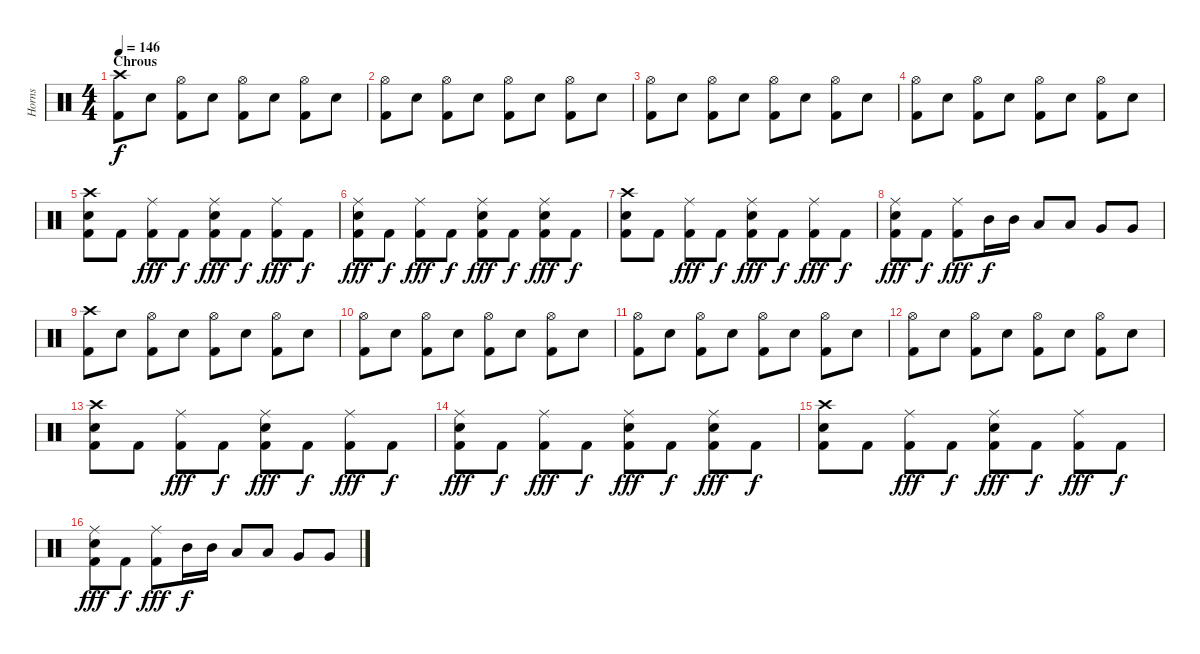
\track ("Horns" "Horns") {instrument percussion}
\staff {score}
\articulation defaults
\ts (4 4)
\section ("" "Chrous")
\tempo 146
\clef neutral
\ks c
("Crash high (hit)" "Kick (hit) 2").8{dy f} "Snare (hit) 2".8 ("Hi-Hat (open)" "Kick (hit) 2").8 "Snare (hit) 2".8 ("Hi-Hat (open)" "Kick (hit) 2").8 "Snare (hit) 2".8 ("Hi-Hat (open)" "Kick (hit) 2").8 "Snare (hit) 2".8 |
("Hi-Hat (open)" "Kick (hit) 2").8 "Snare (hit) 2".8 ("Hi-Hat (open)" "Kick (hit) 2").8 "Snare (hit) 2".8 ("Hi-Hat (open)" "Kick (hit) 2").8 "Snare (hit) 2".8 ("Hi-Hat (open)" "Kick (hit) 2").8 "Snare (hit) 2".8 |
("Hi-Hat (open)" "Kick (hit) 2").8 "Snare (hit) 2".8 ("Hi-Hat (open)" "Kick (hit) 2").8 "Snare (hit) 2".8 ("Hi-Hat (open)" "Kick (hit) 2").8 "Snare (hit) 2".8 ("Hi-Hat (open)" "Kick (hit) 2").8 "Snare (hit) 2".8 |
("Hi-Hat (open)" "Kick (hit) 2").8 "Snare (hit) 2".8 ("Hi-Hat (open)" "Kick (hit) 2").8 "Snare (hit) 2".8 ("Hi-Hat (open)" "Kick (hit) 2").8 "Snare (hit) 2".8 ("Hi-Hat (open)" "Kick (hit) 2").8 "Snare (hit) 2".8 |
("Crash high (hit)" "Snare (hit) 2" "Kick (hit) 2").8 "Kick (hit) 2".8 ("Ride (middle)" "Kick (hit) 2").8{dy fff} "Kick (hit) 2".8{dy f} ("Ride (middle)" "Snare (hit) 2" "Kick (hit) 2").8{dy fff} "Kick (hit) 2".8{dy f} ("Ride (middle)" "Kick (hit) 2").8{dy fff} "Kick (hit) 2".8{dy f} |
("Ride (middle)" "Snare (hit) 2" "Kick (hit) 2").8{dy fff} "Kick (hit) 2".8{dy f} ("Ride (middle)" "Kick (hit) 2").8{dy fff} "Kick (hit) 2".8{dy f} ("Ride (middle)" "Snare (hit) 2" "Kick (hit) 2").8{dy fff} "Kick (hit) 2".8{dy f} ("Ride (middle)" "Snare (hit) 2" "Kick (hit) 2").8{dy fff} "Kick (hit) 2".8{dy f} |
("Crash high (hit)" "Snare (hit) 2" "Kick (hit) 2").8 "Kick (hit) 2".8 ("Ride (middle)" "Kick (hit) 2").8{dy fff} "Kick (hit) 2".8{dy f} ("Ride (middle)" "Snare (hit) 2" "Kick (hit) 2").8{dy fff} "Kick (hit) 2".8{dy f} ("Ride (middle)" "Kick (hit) 2").8{dy fff} "Kick (hit) 2".8{dy f} |
("Ride (middle)" "Snare (hit) 2" "Kick (hit) 2").8{dy fff} "Kick (hit) 2".8{dy f} ("Ride (middle)" "Kick (hit) 2").8{dy fff} "Mid Tom (hit)".16{dy f} "Mid Tom (hit)".16 "Low Tom (hit)".8 "Low Tom (hit)".8 "Very Low Tom (hit)".8 "Very Low Tom (hit)".8 |
("Crash high (hit)" "Kick (hit) 2").8 "Snare (hit) 2".8 ("Hi-Hat (open)" "Kick (hit) 2").8 "Snare (hit) 2".8 ("Hi-Hat (open)" "Kick (hit) 2").8 "Snare (hit) 2".8 ("Hi-Hat (open)" "Kick (hit) 2").8 "Snare (hit) 2".8 |
("Hi-Hat (open)" "Kick (hit) 2").8 "Snare (hit) 2".8 ("Hi-Hat (open)" "Kick (hit) 2").8 "Snare (hit) 2".8 ("Hi-Hat (open)" "Kick (hit) 2").8 "Snare (hit) 2".8 ("Hi-Hat (open)" "Kick (hit) 2").8 "Snare (hit) 2".8 |
("Hi-Hat (open)" "Kick (hit) 2").8 "Snare (hit) 2".8 ("Hi-Hat (open)" "Kick (hit) 2").8 "Snare (hit) 2".8 ("Hi-Hat (open)" "Kick (hit) 2").8 "Snare (hit) 2".8 ("Hi-Hat (open)" "Kick (hit) 2").8 "Snare (hit) 2".8 |
("Hi-Hat (open)" "Kick (hit) 2").8 "Snare (hit) 2".8 ("Hi-Hat (open)" "Kick (hit) 2").8 "Snare (hit) 2".8 ("Hi-Hat (open)" "Kick (hit) 2").8 "Snare (hit) 2".8 ("Hi-Hat (open)" "Kick (hit) 2").8 "Snare (hit) 2".8 |
("Crash high (hit)" "Snare (hit) 2" "Kick (hit) 2").8 "Kick (hit) 2".8 ("Ride (middle)" "Kick (hit) 2").8{dy fff} "Kick (hit) 2".8{dy f} ("Ride (middle)" "Snare (hit) 2" "Kick (hit) 2").8{dy fff} "Kick (hit) 2".8{dy f} ("Ride (middle)" "Kick (hit) 2").8{dy fff} "Kick (hit) 2".8{dy f} |
("Ride (middle)" "Snare (hit) 2" "Kick (hit) 2").8{dy fff} "Kick (hit) 2".8{dy f} ("Ride (middle)" "Kick (hit) 2").8{dy fff} "Kick (hit) 2".8{dy f} ("Ride (middle)" "Snare (hit) 2" "Kick (hit) 2").8{dy fff} "Kick (hit) 2".8{dy f} ("Ride (middle)" "Snare (hit) 2" "Kick (hit) 2").8{dy fff} "Kick (hit) 2".8{dy f} |
("Crash high (hit)" "Snare (hit) 2" "Kick (hit) 2").8 "Kick (hit) 2".8 ("Ride (middle)" "Kick (hit) 2").8{dy fff} "Kick (hit) 2".8{dy f} ("Ride (middle)" "Snare (hit) 2" "Kick (hit) 2").8{dy fff} "Kick (hit) 2".8{dy f} ("Ride (middle)" "Kick (hit) 2").8{dy fff} "Kick (hit) 2".8{dy f} |
("Ride (middle)" "Snare (hit) 2" "Kick (hit) 2").8{dy fff} "Kick (hit) 2".8{dy f} ("Ride (middle)" "Kick (hit) 2").8{dy fff} "Mid Tom (hit)".16{dy f} "Mid Tom (hit)".16 "Low Tom (hit)".8 "Low Tom (hit)".8 "Very Low Tom (hit)".8 "Very Low Tom (hit)".8
